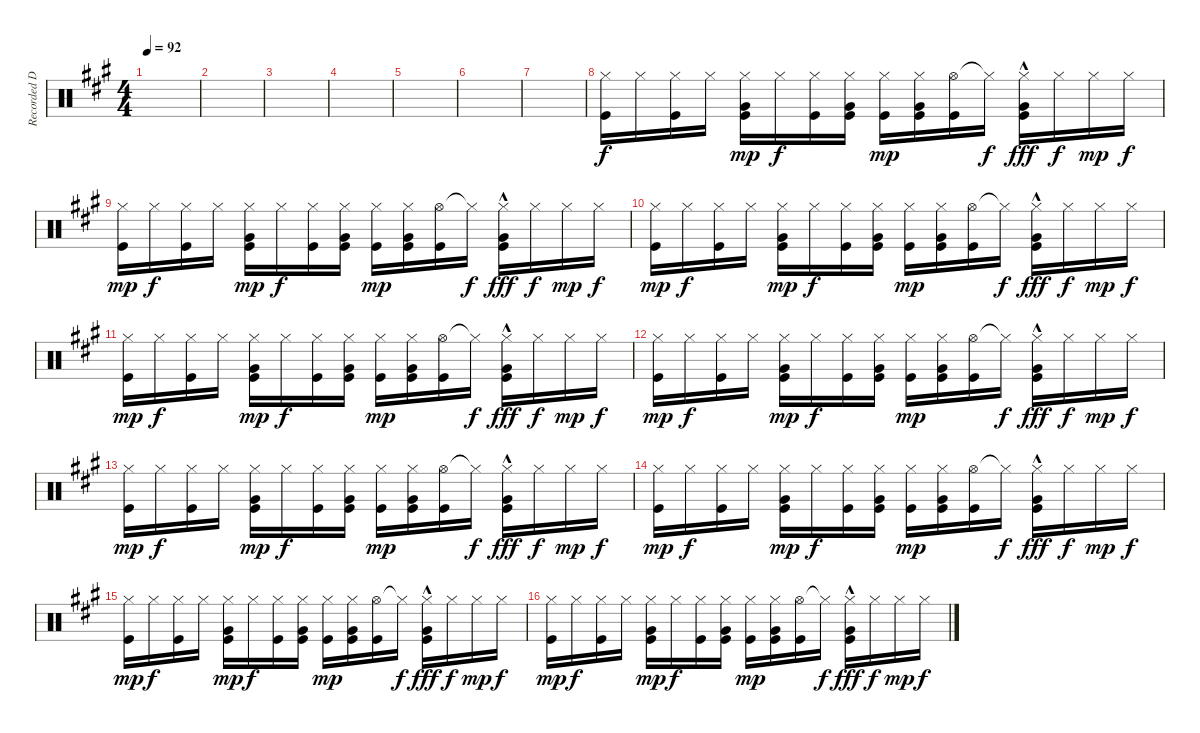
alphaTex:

\track ("Recorded Durms" "Recorded D") {instrument percussion}
\staff {score}
\articulation defaults
\ts (4 4)
\tempo 92
\clef neutral
\ks a
|
|
|
|
|
|
|
("Hi-Hat (closed)" "Kick (hit)").16{volume 2 balance 0} "Hi-Hat (closed)".16{dy f volume 3 balance 0} ("Hi-Hat (closed)" "Kick (hit)").16{volume 4 balance 0} "Hi-Hat (closed)".16{volume 5 balance 0} ("Hi-Hat (closed)" "Very Low Tom (hit)" "Kick (hit)").16{dy mp volume 6 balance 0} "Hi-Hat (closed)".16{dy f} ("Hi-Hat (closed)" "Kick (hit)").16 ("Hi-Hat (closed)" "Very Low Tom (hit)" "Kick (hit)").16 ("Hi-Hat (closed)" "Kick (hit)").16{dy mp} ("Hi-Hat (closed)" "Very Low Tom (hit)" "Kick (hit)").16 ("Hi-Hat (open)" "Kick (hit)").16 "Hi-Hat (closed)"{t}.16{dy f} ("Hi-Hat (closed)" "Very Low Tom (hit)"{hac} "Kick (hit)").16{dy fff} "Hi-Hat (closed)".16{dy f} "Hi-Hat (closed)".16{dy mp} "Hi-Hat (closed)".16{dy f} |
("Hi-Hat (closed)" "Kick (hit)").16{dy mp} "Hi-Hat (closed)".16{dy f} ("Hi-Hat (closed)" "Kick (hit)").16 "Hi-Hat (closed)".16 ("Hi-Hat (closed)" "Very Low Tom (hit)" "Kick (hit)").16{dy mp} "Hi-Hat (closed)".16{dy f} ("Hi-Hat (closed)" "Kick (hit)").16 ("Hi-Hat (closed)" "Very Low Tom (hit)" "Kick (hit)").16 ("Hi-Hat (closed)" "Kick (hit)").16{dy mp} ("Hi-Hat (closed)" "Very Low Tom (hit)" "Kick (hit)").16 ("Hi-Hat (open)" "Kick (hit)").16 "Hi-Hat (closed)"{t}.16{dy f} ("Hi-Hat (closed)" "Very Low Tom (hit)"{hac} "Kick (hit)").16{dy fff} "Hi-Hat (closed)".16{dy f} "Hi-Hat (closed)".16{dy mp} "Hi-Hat (closed)".16{dy f} |
("Hi-Hat (closed)" "Kick (hit)").16{dy mp} "Hi-Hat (closed)".16{dy f} ("Hi-Hat (closed)" "Kick (hit)").16 "Hi-Hat (closed)".16 ("Hi-Hat (closed)" "Very Low Tom (hit)" "Kick (hit)").16{dy mp} "Hi-Hat (closed)".16{dy f} ("Hi-Hat (closed)" "Kick (hit)").16 ("Hi-Hat (closed)" "Very Low Tom (hit)" "Kick (hit)").16 ("Hi-Hat (closed)" "Kick (hit)").16{dy mp} ("Hi-Hat (closed)" "Very Low Tom (hit)" "Kick (hit)").16 ("Hi-Hat (open)" "Kick (hit)").16 "Hi-Hat (closed)"{t}.16{dy f} ("Hi-Hat (closed)" "Very Low Tom (hit)"{hac} "Kick (hit)").16{dy fff} "Hi-Hat (closed)".16{dy f} "Hi-Hat (closed)".16{dy mp} "Hi-Hat (closed)".16{dy f} |
("Hi-Hat (closed)" "Kick (hit)").16{dy mp} "Hi-Hat (closed)".16{dy f} ("Hi-Hat (closed)" "Kick (hit)").16 "Hi-Hat (closed)".16 ("Hi-Hat (closed)" "Very Low Tom (hit)" "Kick (hit)").16{dy mp} "Hi-Hat (closed)".16{dy f} ("Hi-Hat (closed)" "Kick (hit)").16 ("Hi-Hat (closed)" "Very Low Tom (hit)" "Kick (hit)").16 ("Hi-Hat (closed)" "Kick (hit)").16{dy mp} ("Hi-Hat (closed)" "Very Low Tom (hit)" "Kick (hit)").16 ("Hi-Hat (open)" "Kick (hit)").16 "Hi-Hat (closed)"{t}.16{dy f} ("Hi-Hat (closed)" "Very Low Tom (hit)"{hac} "Kick (hit)").16{dy fff} "Hi-Hat (closed)".16{dy f} "Hi-Hat (closed)".16{dy mp} "Hi-Hat (closed)".16{dy f} |
("Hi-Hat (closed)" "Kick (hit)").16{dy mp} "Hi-Hat (closed)".16{dy f} ("Hi-Hat (closed)" "Kick (hit)").16 "Hi-Hat (closed)".16 ("Hi-Hat (closed)" "Very Low Tom (hit)" "Kick (hit)").16{dy mp} "Hi-Hat (closed)".16{dy f} ("Hi-Hat (closed)" "Kick (hit)").16 ("Hi-Hat (closed)" "Very Low Tom (hit)" "Kick (hit)").16 ("Hi-Hat (closed)" "Kick (hit)").16{dy mp} ("Hi-Hat (closed)" "Very Low Tom (hit)" "Kick (hit)").16 ("Hi-Hat (open)" "Kick (hit)").16 "Hi-Hat (closed)"{t}.16{dy f} ("Hi-Hat (closed)" "Very Low Tom (hit)"{hac} "Kick (hit)").16{dy fff} "Hi-Hat (closed)".16{dy f} "Hi-Hat (closed)".16{dy mp} "Hi-Hat (closed)".16{dy f} |
("Hi-Hat (closed)" "Kick (hit)").16{dy mp} "Hi-Hat (closed)".16{dy f} ("Hi-Hat (closed)" "Kick (hit)").16 "Hi-Hat (closed)".16 ("Hi-Hat (closed)" "Very Low Tom (hit)" "Kick (hit)").16{dy mp} "Hi-Hat (closed)".16{dy f} ("Hi-Hat (closed)" "Kick (hit)").16 ("Hi-Hat (closed)" "Very Low Tom (hit)" "Kick (hit)").16 ("Hi-Hat (closed)" "Kick (hit)").16{dy mp} ("Hi-Hat (closed)" "Very Low Tom (hit)" "Kick (hit)").16 ("Hi-Hat (open)" "Kick (hit)").16 "Hi-Hat (closed)"{t}.16{dy f} ("Hi-Hat (closed)" "Very Low Tom (hit)"{hac} "Kick (hit)").16{dy fff} "Hi-Hat (closed)".16{dy f} "Hi-Hat (closed)".16{dy mp} "Hi-Hat (closed)".16{dy f} |
("Hi-Hat (closed)" "Kick (hit)").16{dy mp} "Hi-Hat (closed)".16{dy f} ("Hi-Hat (closed)" "Kick (hit)").16 "Hi-Hat (closed)".16 ("Hi-Hat (closed)" "Very Low Tom (hit)" "Kick (hit)").16{dy mp} "Hi-Hat (closed)".16{dy f} ("Hi-Hat (closed)" "Kick (hit)").16 ("Hi-Hat (closed)" "Very Low Tom (hit)" "Kick (hit)").16 ("Hi-Hat (closed)" "Kick (hit)").16{dy mp} ("Hi-Hat (closed)" "Very Low Tom (hit)" "Kick (hit)").16 ("Hi-Hat (open)" "Kick (hit)").16 "Hi-Hat (closed)"{t}.16{dy f} ("Hi-Hat (closed)" "Very Low Tom (hit)"{hac} "Kick (hit)").16{dy fff} "Hi-Hat (closed)".16{dy f} "Hi-Hat (closed)".16{dy mp} "Hi-Hat (closed)".16{dy f} |
("Hi-Hat (closed)" "Kick (hit)").16{dy mp} "Hi-Hat (closed)".16{dy f} ("Hi-Hat (closed)" "Kick (hit)").16 "Hi-Hat (closed)".16 ("Hi-Hat (closed)" "Very Low Tom (hit)" "Kick (hit)").16{dy mp} "Hi-Hat (closed)".16{dy f} ("Hi-Hat (closed)" "Kick (hit)").16 ("Hi-Hat (closed)" "Very Low Tom (hit)" "Kick (hit)").16 ("Hi-Hat (closed)" "Kick (hit)").16{dy mp} ("Hi-Hat (closed)" "Very Low Tom (hit)" "Kick (hit)").16 ("Hi-Hat (open)" "Kick (hit)").16 "Hi-Hat (closed)"{t}.16{dy f} ("Hi-Hat (closed)" "Very Low Tom (hit)"{hac} "Kick (hit)").16{dy fff} "Hi-Hat (closed)".16{dy f} "Hi-Hat (closed)".16{dy mp} "Hi-Hat (closed)".16{dy f} |
("Hi-Hat (closed)" "Kick (hit)").16{dy mp} "Hi-Hat (closed)".16{dy f} ("Hi-Hat (closed)" "Kick (hit)").16 "Hi-Hat (closed)".16 ("Hi-Hat (closed)" "Very Low Tom (hit)" "Kick (hit)").16{dy mp} "Hi-Hat (closed)".16{dy f} ("Hi-Hat (closed)" "Kick (hit)").16 ("Hi-Hat (closed)" "Very Low Tom (hit)" "Kick (hit)").16 ("Hi-Hat (closed)" "Kick (hit)").16{dy mp} ("Hi-Hat (closed)" "Very Low Tom (hit)" "Kick (hit)").16 ("Hi-Hat (open)" "Kick (hit)").16 "Hi-Hat (closed)"{t}.16{dy f} ("Hi-Hat (closed)" "Very Low Tom (hit)"{hac} "Kick (hit)").16{dy fff} "Hi-Hat (closed)".16{dy f} "Hi-Hat (closed)".16{dy mp} "Hi-Hat (closed)".16{dy f}
